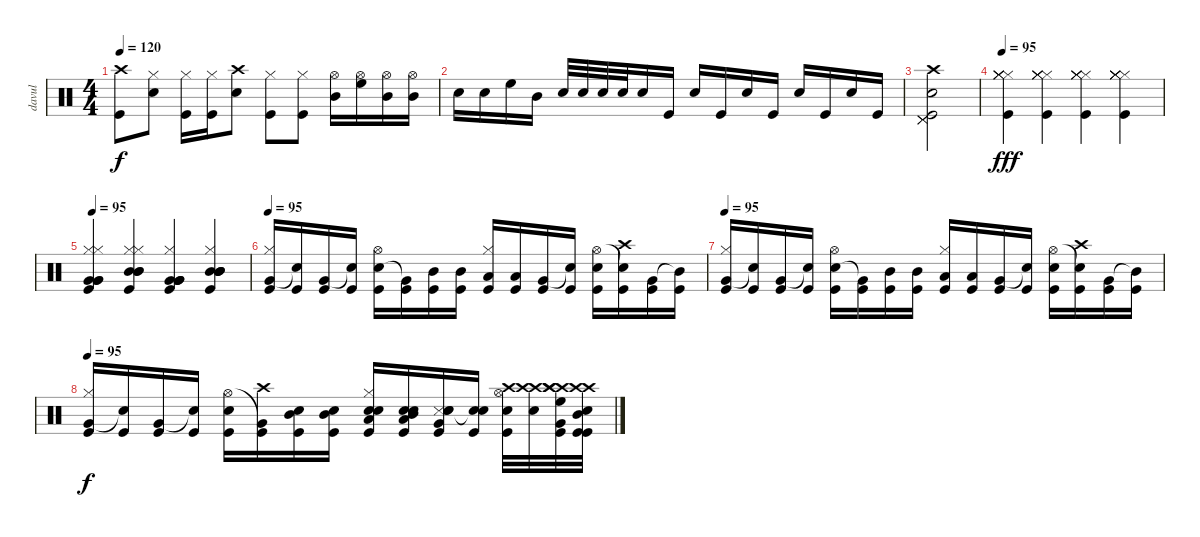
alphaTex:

\track ("davul" "davul") {instrument percussion}
\staff {score}
\articulation defaults
\ts (4 4)
\tempo 120
\clef neutral
\ks c
("Crash high (hit)" "Kick (hit)").8{dy f} ("Hi-Hat (closed)" "Snare (hit) 2").8 ("Hi-Hat (closed)" "Kick (hit)").16 ("Hi-Hat (closed)" "Kick (hit)").16 ("Crash high (hit)" "Snare (hit) 2").8 ("Hi-Hat (closed)" "Kick (hit)").8 ("Hi-Hat (closed)" "Kick (hit)").8 ("Mid Tom (hit)" "Hi-Hat (open)").16 ("High Floor Tom (hit)" "Hi-Hat (open)").16 ("Mid Tom (hit)" "Hi-Hat (open)").16 ("Mid Tom (hit)" "Hi-Hat (open)").16 |
"Snare (hit) 2".16 "Snare (hit) 2".16 "High Floor Tom (hit)".16 "Mid Tom (hit)".16 "Snare (hit) 2".32 "Snare (hit) 2".32 "Snare (hit) 2".32 "Snare (hit) 2".32 "Snare (hit) 2".16 "Kick (hit)".16 "Snare (hit) 2".16 "Kick (hit)".16 "Snare (hit) 2".16 "Kick (hit)".16 "Snare (hit) 2".16 "Kick (hit)".16 "Snare (hit) 2".16 "Kick (hit)".16 |
("Pedal Hi-Hat (hit)" "Pedal Hi-Hat (hit)" "Pedal Hi-Hat (hit)" "Snare (hit) 2" "Crash high (hit)" "Kick (hit)").2 |
\tempo 95
("Hi-Hat (closed)" "Hi-Hat (closed)" "Hi-Hat (closed)" "Kick (hit)" "Hi-Hat (closed)" "Hi-Hat (closed)").4{dy fff} ("Hi-Hat (closed)" "Hi-Hat (closed)" "Hi-Hat (closed)" "Kick (hit)" "Hi-Hat (closed)" "Hi-Hat (closed)").4 ("Hi-Hat (closed)" "Hi-Hat (closed)" "Hi-Hat (closed)" "Kick (hit)" "Hi-Hat (closed)" "Hi-Hat (closed)").4 ("Hi-Hat (closed)" "Hi-Hat (closed)" "Hi-Hat (closed)" "Kick (hit)" "Hi-Hat (closed)" "Hi-Hat (closed)").4 |
\tempo 95
("Very Low Tom (hit)" "Very Low Tom (hit)" "Very Low Tom (hit)" "Kick (hit)" "Hi-Hat (closed)" "Hi-Hat (closed)").4 ("Mid Tom (hit)" "Mid Tom (hit)" "Mid Tom (hit)" "Kick (hit)" "Hi-Hat (closed)" "Hi-Hat (closed)").4 ("Very Low Tom (hit)" "Very Low Tom (hit)" "Very Low Tom (hit)" "Very Low Tom (hit)" "Kick (hit)" "Hi-Hat (closed)").4 ("Mid Tom (hit)" "Mid Tom (hit)" "Mid Tom (hit)" "Mid Tom (hit)" "Kick (hit)" "Hi-Hat (closed)").4 |
\tempo 95
("Kick (hit)" "Very Low Tom (hit)" "Hi-Hat (closed)").16 ("Kick (hit)" "Snare (hit)"{t}).16 ("Kick (hit)" "Very Low Tom (hit)").16 ("Kick (hit)" "Snare (hit)"{t}).16 ("Kick (hit)" "Snare (hit) 2" "Hi-Hat (open)").16 ("Kick (hit)" "Very Low Tom (hit)"{t}).16 ("Kick (hit)" "Mid Tom (hit)").16 ("Kick (hit)" "Mid Tom (hit)").16 ("Kick (hit)" "Low Tom (hit)" "Hi-Hat (closed)").16 ("Kick (hit)" "Low Tom (hit)").16 ("Kick (hit)" "Very Low Tom (hit)").16 ("Kick (hit)" "Snare (hit)"{t}).16 ("Kick (hit)" "Snare (hit) 2" "Hi-Hat (open)").16 ("Kick (hit)" "Crash high (hit)" "Snare (hit)"{t}).16 ("Kick (hit)" "Very Low Tom (hit)").16 ("Kick (hit)" "Mid Tom (hit)"{t}).16 |
\tempo 95
("Kick (hit)" "Very Low Tom (hit)" "Hi-Hat (closed)").16 ("Kick (hit)" "Snare (hit)"{t}).16 ("Kick (hit)" "Very Low Tom (hit)").16 ("Kick (hit)" "Snare (hit)"{t}).16 ("Kick (hit)" "Snare (hit) 2" "Hi-Hat (open)").16 ("Kick (hit)" "Very Low Tom (hit)"{t}).16 ("Kick (hit)" "Mid Tom (hit)").16 ("Kick (hit)" "Mid Tom (hit)").16 ("Kick (hit)" "Low Tom (hit)" "Hi-Hat (closed)").16 ("Kick (hit)" "Low Tom (hit)").16 ("Kick (hit)" "Very Low Tom (hit)").16 ("Kick (hit)" "Snare (hit)"{t}).16 ("Kick (hit)" "Snare (hit) 2" "Hi-Hat (open)").16 ("Kick (hit)" "Crash high (hit)" "Snare (hit)"{t}).16 ("Kick (hit)" "Very Low Tom (hit)").16 ("Kick (hit)" "Mid Tom (hit)"{t}).16 |
\tempo 95
("Kick (hit)" "Very Low Tom (hit)" "Hi-Hat (closed)").16{dy f} ("Kick (hit)" "Snare (hit)"{t}).16 ("Kick (hit)" "Very Low Tom (hit)").16 ("Kick (hit)" "Snare (hit)"{t}).16 ("Kick (hit)" "Snare (hit) 2" "Hi-Hat (open)").16 ("Kick (hit)" "Crash high (hit)" "Very Low Tom (hit)"{t}).16 ("Kick (hit)" "Snare (hit) 2" "Mid Tom (hit)").16 ("Kick (hit)" "Snare (hit) 2" "Mid Tom (hit)").16 ("Kick (hit)" "Electric Snare (hit)" "Low Tom (hit)" "Snare (hit) 2" "Hi-Hat (closed)").16 ("Kick (hit)" "Mid Tom (hit)" "Snare (hit) 2" "Low Tom (hit)" "Snare (hit) 2").16 ("Kick (hit)" "Metronome (hit)" "Electric Snare (hit)" "Very Low Tom (hit)" "Snare (hit) 2").16 ("Kick (hit)" "Snare (hit) 2" "Snare (hit)"{t}).16 ("Kick (hit)" "Crash high (hit)" "Snare (hit) 2" "Hi-Hat (open)").32 ("Crash high (hit)" "Crash high (hit)" "Snare (hit) 2").32 ("Crash high (hit)" "Crash high (hit)" "Crash high (hit)" "Very Low Tom (hit)" "High Floor Tom (hit)" "Kick (hit)").32 ("Kick (hit)" "Crash high (hit)" "Crash high (hit)" "Snare (hit) 2" "Mid Tom (hit)" "Kick (hit)").32
